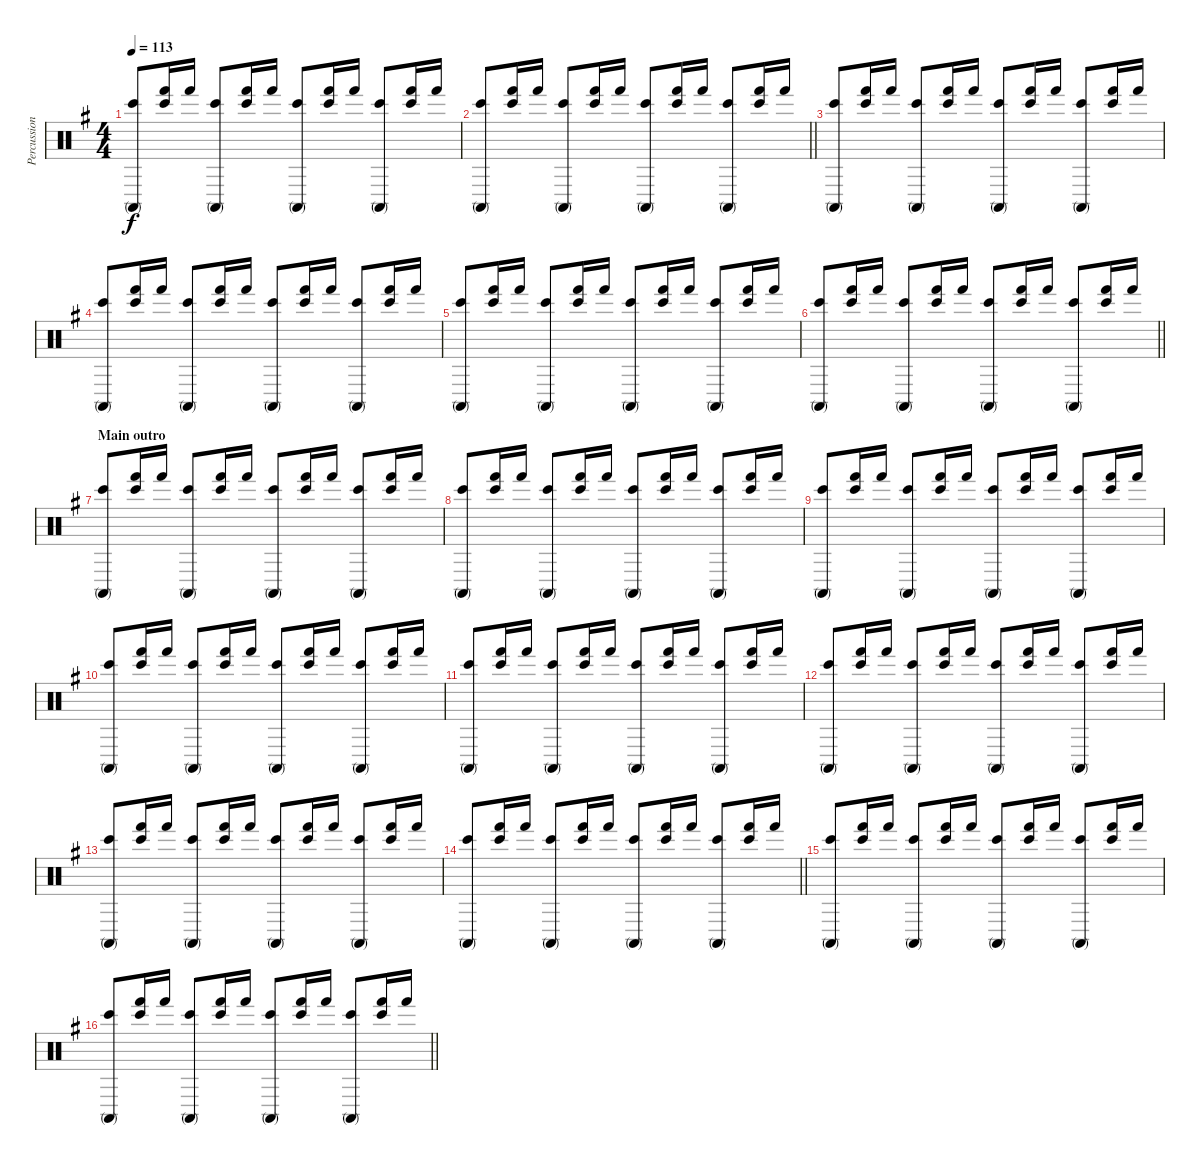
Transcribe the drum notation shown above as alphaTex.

\track ("Percussion" "Percussion") {instrument percussion}
\staff {score}
\articulation defaults
\ts (4 4)
\tempo 113
\clef neutral
\ks g
("Bongo High (hit)" "Conga high (mute)").8{dy f} ("Bongo High (hit)" "Hand (hit)").16 "Hand (hit)".16 ("Bongo High (hit)" "Conga high (mute)").8 ("Bongo High (hit)" "Hand (hit)").16 "Hand (hit)".16 ("Bongo High (hit)" "Conga high (mute)").8 ("Bongo High (hit)" "Hand (hit)").16 "Hand (hit)".16 ("Bongo High (hit)" "Conga high (mute)").8 ("Bongo High (hit)" "Hand (hit)").16 "Hand (hit)".16 |
\barLineRight lightlight
("Bongo High (hit)" "Conga high (mute)").8 ("Bongo High (hit)" "Hand (hit)").16 "Hand (hit)".16 ("Bongo High (hit)" "Conga high (mute)").8 ("Bongo High (hit)" "Hand (hit)").16 "Hand (hit)".16 ("Bongo High (hit)" "Conga high (mute)").8 ("Bongo High (hit)" "Hand (hit)").16 "Hand (hit)".16 ("Bongo High (hit)" "Conga high (mute)").8 ("Bongo High (hit)" "Hand (hit)").16 "Hand (hit)".16 |
("Bongo High (hit)" "Conga high (mute)").8 ("Bongo High (hit)" "Hand (hit)").16 "Hand (hit)".16 ("Bongo High (hit)" "Conga high (mute)").8 ("Bongo High (hit)" "Hand (hit)").16 "Hand (hit)".16 ("Bongo High (hit)" "Conga high (mute)").8 ("Bongo High (hit)" "Hand (hit)").16 "Hand (hit)".16 ("Bongo High (hit)" "Conga high (mute)").8 ("Bongo High (hit)" "Hand (hit)").16 "Hand (hit)".16 |
("Bongo High (hit)" "Conga high (mute)").8 ("Bongo High (hit)" "Hand (hit)").16 "Hand (hit)".16 ("Bongo High (hit)" "Conga high (mute)").8 ("Bongo High (hit)" "Hand (hit)").16 "Hand (hit)".16 ("Bongo High (hit)" "Conga high (mute)").8 ("Bongo High (hit)" "Hand (hit)").16 "Hand (hit)".16 ("Bongo High (hit)" "Conga high (mute)").8 ("Bongo High (hit)" "Hand (hit)").16 "Hand (hit)".16 |
("Bongo High (hit)" "Conga high (mute)").8 ("Bongo High (hit)" "Hand (hit)").16 "Hand (hit)".16 ("Bongo High (hit)" "Conga high (mute)").8 ("Bongo High (hit)" "Hand (hit)").16 "Hand (hit)".16 ("Bongo High (hit)" "Conga high (mute)").8 ("Bongo High (hit)" "Hand (hit)").16 "Hand (hit)".16 ("Bongo High (hit)" "Conga high (mute)").8 ("Bongo High (hit)" "Hand (hit)").16 "Hand (hit)".16 |
\barLineRight lightlight
("Bongo High (hit)" "Conga high (mute)").8 ("Bongo High (hit)" "Hand (hit)").16 "Hand (hit)".16 ("Bongo High (hit)" "Conga high (mute)").8 ("Bongo High (hit)" "Hand (hit)").16 "Hand (hit)".16 ("Bongo High (hit)" "Conga high (mute)").8 ("Bongo High (hit)" "Hand (hit)").16 "Hand (hit)".16 ("Bongo High (hit)" "Conga high (mute)").8 ("Bongo High (hit)" "Hand (hit)").16 "Hand (hit)".16 |
\section ("" "Main outro")
("Bongo High (hit)" "Conga high (mute)").8 ("Bongo High (hit)" "Hand (hit)").16 "Hand (hit)".16 ("Bongo High (hit)" "Conga high (mute)").8 ("Bongo High (hit)" "Hand (hit)").16 "Hand (hit)".16 ("Bongo High (hit)" "Conga high (mute)").8 ("Bongo High (hit)" "Hand (hit)").16 "Hand (hit)".16 ("Bongo High (hit)" "Conga high (mute)").8 ("Bongo High (hit)" "Hand (hit)").16 "Hand (hit)".16 |
("Bongo High (hit)" "Conga high (mute)").8 ("Bongo High (hit)" "Hand (hit)").16 "Hand (hit)".16 ("Bongo High (hit)" "Conga high (mute)").8 ("Bongo High (hit)" "Hand (hit)").16 "Hand (hit)".16 ("Bongo High (hit)" "Conga high (mute)").8 ("Bongo High (hit)" "Hand (hit)").16 "Hand (hit)".16 ("Bongo High (hit)" "Conga high (mute)").8 ("Bongo High (hit)" "Hand (hit)").16 "Hand (hit)".16 |
("Bongo High (hit)" "Conga high (mute)").8 ("Bongo High (hit)" "Hand (hit)").16 "Hand (hit)".16 ("Bongo High (hit)" "Conga high (mute)").8 ("Bongo High (hit)" "Hand (hit)").16 "Hand (hit)".16 ("Bongo High (hit)" "Conga high (mute)").8 ("Bongo High (hit)" "Hand (hit)").16 "Hand (hit)".16 ("Bongo High (hit)" "Conga high (mute)").8 ("Bongo High (hit)" "Hand (hit)").16 "Hand (hit)".16 |
("Bongo High (hit)" "Conga high (mute)").8 ("Bongo High (hit)" "Hand (hit)").16 "Hand (hit)".16 ("Bongo High (hit)" "Conga high (mute)").8 ("Bongo High (hit)" "Hand (hit)").16 "Hand (hit)".16 ("Bongo High (hit)" "Conga high (mute)").8 ("Bongo High (hit)" "Hand (hit)").16 "Hand (hit)".16 ("Bongo High (hit)" "Conga high (mute)").8 ("Bongo High (hit)" "Hand (hit)").16 "Hand (hit)".16 |
("Bongo High (hit)" "Conga high (mute)").8 ("Bongo High (hit)" "Hand (hit)").16 "Hand (hit)".16 ("Bongo High (hit)" "Conga high (mute)").8 ("Bongo High (hit)" "Hand (hit)").16 "Hand (hit)".16 ("Bongo High (hit)" "Conga high (mute)").8 ("Bongo High (hit)" "Hand (hit)").16 "Hand (hit)".16 ("Bongo High (hit)" "Conga high (mute)").8 ("Bongo High (hit)" "Hand (hit)").16 "Hand (hit)".16 |
("Bongo High (hit)" "Conga high (mute)").8 ("Bongo High (hit)" "Hand (hit)").16 "Hand (hit)".16 ("Bongo High (hit)" "Conga high (mute)").8 ("Bongo High (hit)" "Hand (hit)").16 "Hand (hit)".16 ("Bongo High (hit)" "Conga high (mute)").8 ("Bongo High (hit)" "Hand (hit)").16 "Hand (hit)".16 ("Bongo High (hit)" "Conga high (mute)").8 ("Bongo High (hit)" "Hand (hit)").16 "Hand (hit)".16 |
("Bongo High (hit)" "Conga high (mute)").8 ("Bongo High (hit)" "Hand (hit)").16 "Hand (hit)".16 ("Bongo High (hit)" "Conga high (mute)").8 ("Bongo High (hit)" "Hand (hit)").16 "Hand (hit)".16 ("Bongo High (hit)" "Conga high (mute)").8 ("Bongo High (hit)" "Hand (hit)").16 "Hand (hit)".16 ("Bongo High (hit)" "Conga high (mute)").8 ("Bongo High (hit)" "Hand (hit)").16 "Hand (hit)".16 |
\barLineRight lightlight
("Bongo High (hit)" "Conga high (mute)").8 ("Bongo High (hit)" "Hand (hit)").16 "Hand (hit)".16 ("Bongo High (hit)" "Conga high (mute)").8 ("Bongo High (hit)" "Hand (hit)").16 "Hand (hit)".16 ("Bongo High (hit)" "Conga high (mute)").8 ("Bongo High (hit)" "Hand (hit)").16 "Hand (hit)".16 ("Bongo High (hit)" "Conga high (mute)").8 ("Bongo High (hit)" "Hand (hit)").16 "Hand (hit)".16 |
("Bongo High (hit)" "Conga high (mute)").8 ("Bongo High (hit)" "Hand (hit)").16 "Hand (hit)".16 ("Bongo High (hit)" "Conga high (mute)").8 ("Bongo High (hit)" "Hand (hit)").16 "Hand (hit)".16 ("Bongo High (hit)" "Conga high (mute)").8 ("Bongo High (hit)" "Hand (hit)").16 "Hand (hit)".16 ("Bongo High (hit)" "Conga high (mute)").8 ("Bongo High (hit)" "Hand (hit)").16 "Hand (hit)".16 |
\barLineRight lightlight
("Bongo High (hit)" "Conga high (mute)").8 ("Bongo High (hit)" "Hand (hit)").16 "Hand (hit)".16 ("Bongo High (hit)" "Conga high (mute)").8 ("Bongo High (hit)" "Hand (hit)").16 "Hand (hit)".16 ("Bongo High (hit)" "Conga high (mute)").8 ("Bongo High (hit)" "Hand (hit)").16 "Hand (hit)".16 ("Bongo High (hit)" "Conga high (mute)").8 ("Bongo High (hit)" "Hand (hit)").16 "Hand (hit)".16
